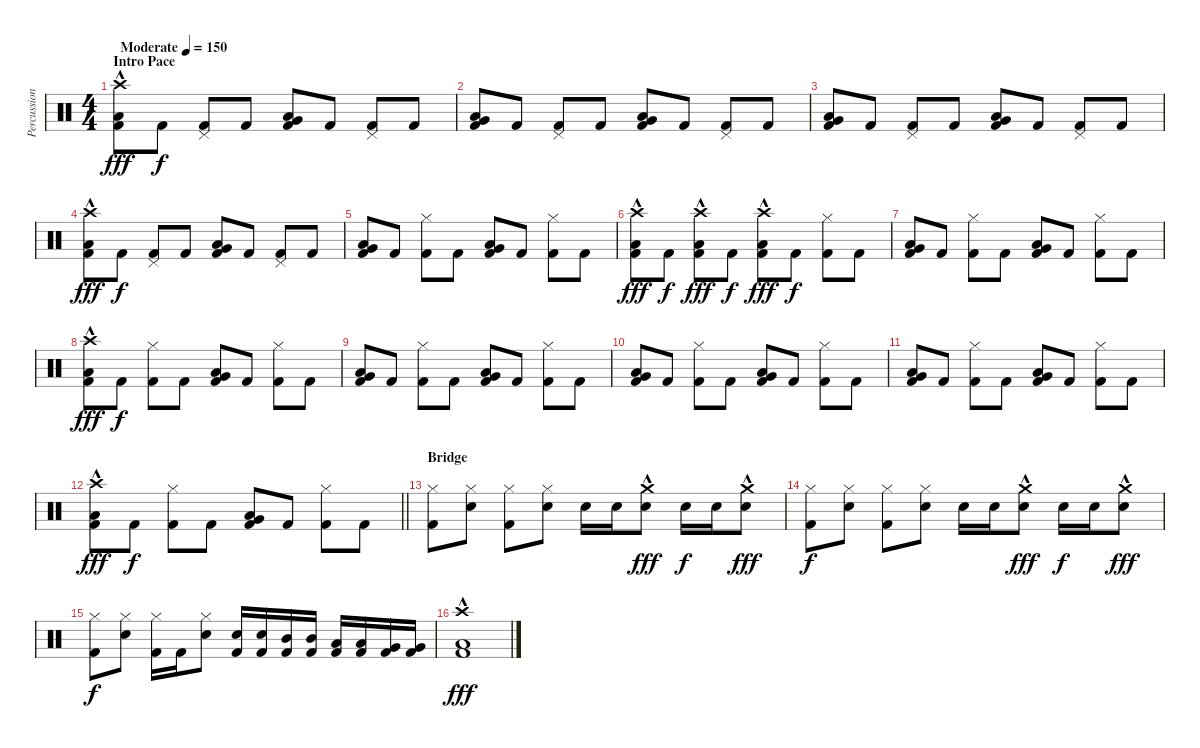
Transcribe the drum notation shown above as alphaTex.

\track ("Percussion" "Percussion") {instrument percussion}
\staff {score}
\articulation defaults
\ts (4 4)
\section ("" "Intro Pace")
\tempo (150 "Moderate")
\clef neutral
\ks c
("Crash high (hit)"{hac} "Low Tom (hit)" "Kick (hit) 2").8{dy fff} "Kick (hit) 2".8{dy f} ("Pedal Hi-Hat (hit)" "Kick (hit) 2").8 "Kick (hit) 2".8 ("Very Low Tom (hit)" "Low Tom (hit)" "Kick (hit) 2").8 "Kick (hit) 2".8 ("Pedal Hi-Hat (hit)" "Kick (hit) 2").8 "Kick (hit) 2".8 |
("Very Low Tom (hit)" "Low Tom (hit)" "Kick (hit) 2").8 "Kick (hit) 2".8 ("Pedal Hi-Hat (hit)" "Kick (hit) 2").8 "Kick (hit) 2".8 ("Very Low Tom (hit)" "Low Tom (hit)" "Kick (hit) 2").8 "Kick (hit) 2".8 ("Pedal Hi-Hat (hit)" "Kick (hit) 2").8 "Kick (hit) 2".8 |
("Very Low Tom (hit)" "Low Tom (hit)" "Kick (hit) 2").8 "Kick (hit) 2".8 ("Pedal Hi-Hat (hit)" "Kick (hit) 2").8 "Kick (hit) 2".8 ("Very Low Tom (hit)" "Low Tom (hit)" "Kick (hit) 2").8 "Kick (hit) 2".8 ("Pedal Hi-Hat (hit)" "Kick (hit) 2").8 "Kick (hit) 2".8 |
("Crash high (hit)"{hac} "Low Tom (hit)" "Kick (hit) 2").8{dy fff} "Kick (hit) 2".8{dy f} ("Pedal Hi-Hat (hit)" "Kick (hit) 2").8 "Kick (hit) 2".8 ("Very Low Tom (hit)" "Low Tom (hit)" "Kick (hit) 2").8 "Kick (hit) 2".8 ("Pedal Hi-Hat (hit)" "Kick (hit) 2").8 "Kick (hit) 2".8 |
("Very Low Tom (hit)" "Low Tom (hit)" "Kick (hit) 2").8 "Kick (hit) 2".8 ("Hi-Hat (closed)" "Kick (hit) 2").8 "Kick (hit) 2".8 ("Very Low Tom (hit)" "Low Tom (hit)" "Kick (hit) 2").8 "Kick (hit) 2".8 ("Hi-Hat (closed)" "Kick (hit) 2").8 "Kick (hit) 2".8 |
("Crash high (hit)"{hac} "Low Tom (hit)" "Kick (hit) 2").8{dy fff} "Kick (hit) 2".8{dy f} ("Crash high (hit)"{hac} "Low Tom (hit)" "Kick (hit) 2").8{dy fff} "Kick (hit) 2".8{dy f} ("Crash high (hit)"{hac} "Low Tom (hit)" "Kick (hit) 2").8{dy fff} "Kick (hit) 2".8{dy f} ("Hi-Hat (closed)" "Kick (hit) 2").8 "Kick (hit) 2".8 |
("Very Low Tom (hit)" "Low Tom (hit)" "Kick (hit) 2").8 "Kick (hit) 2".8 ("Hi-Hat (closed)" "Kick (hit) 2").8 "Kick (hit) 2".8 ("Very Low Tom (hit)" "Low Tom (hit)" "Kick (hit) 2").8 "Kick (hit) 2".8 ("Hi-Hat (closed)" "Kick (hit) 2").8 "Kick (hit) 2".8 |
("Crash high (hit)"{hac} "Low Tom (hit)" "Kick (hit) 2").8{dy fff} "Kick (hit) 2".8{dy f} ("Hi-Hat (closed)" "Kick (hit) 2").8 "Kick (hit) 2".8 ("Very Low Tom (hit)" "Low Tom (hit)" "Kick (hit) 2").8 "Kick (hit) 2".8 ("Hi-Hat (closed)" "Kick (hit) 2").8 "Kick (hit) 2".8 |
("Very Low Tom (hit)" "Low Tom (hit)" "Kick (hit) 2").8 "Kick (hit) 2".8 ("Hi-Hat (closed)" "Kick (hit) 2").8 "Kick (hit) 2".8 ("Very Low Tom (hit)" "Low Tom (hit)" "Kick (hit) 2").8 "Kick (hit) 2".8 ("Hi-Hat (closed)" "Kick (hit) 2").8 "Kick (hit) 2".8 |
("Very Low Tom (hit)" "Low Tom (hit)" "Kick (hit) 2").8 "Kick (hit) 2".8 ("Hi-Hat (closed)" "Kick (hit) 2").8 "Kick (hit) 2".8 ("Very Low Tom (hit)" "Low Tom (hit)" "Kick (hit) 2").8 "Kick (hit) 2".8 ("Hi-Hat (closed)" "Kick (hit) 2").8 "Kick (hit) 2".8 |
("Very Low Tom (hit)" "Low Tom (hit)" "Kick (hit) 2").8 "Kick (hit) 2".8 ("Hi-Hat (closed)" "Kick (hit) 2").8 "Kick (hit) 2".8 ("Very Low Tom (hit)" "Low Tom (hit)" "Kick (hit) 2").8 "Kick (hit) 2".8 ("Hi-Hat (closed)" "Kick (hit) 2").8 "Kick (hit) 2".8 |
\barLineRight lightlight
("Crash high (hit)"{hac} "Low Tom (hit)" "Kick (hit) 2").8{dy fff} "Kick (hit) 2".8{dy f} ("Hi-Hat (closed)" "Kick (hit) 2").8 "Kick (hit) 2".8 ("Very Low Tom (hit)" "Low Tom (hit)" "Kick (hit) 2").8 "Kick (hit) 2".8 ("Hi-Hat (closed)" "Kick (hit) 2").8 "Kick (hit) 2".8 |
\section ("" "Bridge")
("Hi-Hat (closed)" "Kick (hit) 2").8 ("Hi-Hat (closed)" "Snare (hit) 2").8 ("Hi-Hat (closed)" "Kick (hit) 2").8 ("Hi-Hat (closed)" "Snare (hit) 2").8 "Snare (hit) 2".16 "Snare (hit) 2".16 ("Crash medium (hit)"{hac} "Snare (hit) 2").8{dy fff} "Snare (hit) 2".16{dy f} "Snare (hit) 2".16 ("Crash medium (hit)"{hac} "Snare (hit) 2").8{dy fff} |
("Hi-Hat (closed)" "Kick (hit) 2").8{dy f} ("Hi-Hat (closed)" "Snare (hit) 2").8 ("Hi-Hat (closed)" "Kick (hit) 2").8 ("Hi-Hat (closed)" "Snare (hit) 2").8 "Snare (hit) 2".16 "Snare (hit) 2".16 ("Crash medium (hit)"{hac} "Snare (hit) 2").8{dy fff} "Snare (hit) 2".16{dy f} "Snare (hit) 2".16 ("Crash medium (hit)"{hac} "Snare (hit) 2").8{dy fff} |
("Hi-Hat (closed)" "Kick (hit) 2").8{dy f} ("Hi-Hat (closed)" "Snare (hit) 2").8 ("Hi-Hat (closed)" "Kick (hit) 2").16 "Kick (hit) 2".16 ("Hi-Hat (closed)" "Snare (hit) 2").8 ("Snare (hit) 2" "Kick (hit) 2").16 ("Snare (hit) 2" "Kick (hit) 2").16 ("Mid Tom (hit)" "Kick (hit) 2").16 ("Mid Tom (hit)" "Kick (hit) 2").16 ("Low Tom (hit)" "Kick (hit) 2").16 ("Low Tom (hit)" "Kick (hit) 2").16 ("Very Low Tom (hit)" "Kick (hit) 2").16 ("Very Low Tom (hit)" "Kick (hit) 2").16 |
("Crash high (hit)"{hac} "Low Tom (hit)" "Kick (hit) 2").1{dy fff}
